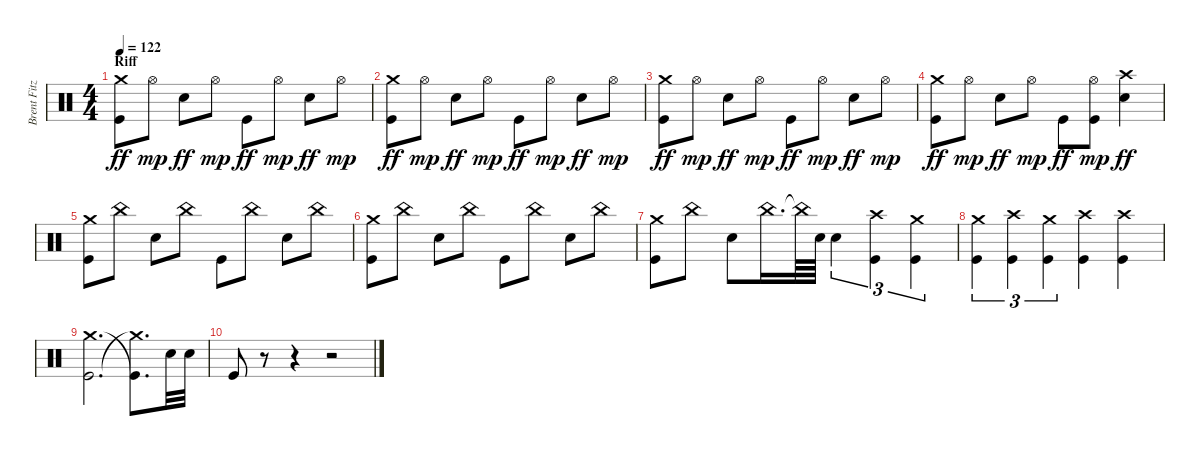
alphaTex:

\track ("Brent Fitz" "Brent Fitz") {instrument percussion}
\staff {score}
\articulation defaults
\ts (4 4)
\section ("" "Riff")
\tempo 122
\clef neutral
\ks c
("Kick (hit)" "Crash medium (hit)").8{dy ff} "Hi-Hat (open)".8{dy mp} "Snare (hit) 2".8{dy ff} "Hi-Hat (open)".8{dy mp} "Kick (hit)".8{dy ff} "Hi-Hat (open)".8{dy mp} "Snare (hit) 2".8{dy ff} "Hi-Hat (open)".8{dy mp} |
("Kick (hit)" "Crash medium (hit)").8{dy ff} "Hi-Hat (open)".8{dy mp} "Snare (hit) 2".8{dy ff} "Hi-Hat (open)".8{dy mp} "Kick (hit)".8{dy ff} "Hi-Hat (open)".8{dy mp} "Snare (hit) 2".8{dy ff} "Hi-Hat (open)".8{dy mp} |
("Kick (hit)" "Crash medium (hit)").8{dy ff} "Hi-Hat (open)".8{dy mp} "Snare (hit) 2".8{dy ff} "Hi-Hat (open)".8{dy mp} "Kick (hit)".8{dy ff} "Hi-Hat (open)".8{dy mp} "Snare (hit) 2".8{dy ff} "Hi-Hat (open)".8{dy mp} |
("Kick (hit)" "Crash medium (hit)").8{dy ff} "Hi-Hat (open)".8{dy mp} "Snare (hit) 2".8{dy ff} "Hi-Hat (open)".8{dy mp} "Kick (hit)".8{dy ff} ("Hi-Hat (open)" "Kick (hit)").8{dy mp} ("Snare (hit) 2" "Crash high (hit)").4{dy ff} |
("Kick (hit)" "Crash medium (hit)").8 "China (hit)".8 "Snare (hit) 2".8 "China (hit)".8 "Kick (hit)".8 "China (hit)".8 "Snare (hit) 2".8 "China (hit)".8 |
("Kick (hit)" "Crash medium (hit)").8 "China (hit)".8 "Snare (hit) 2".8 "China (hit)".8 "Kick (hit)".8 "China (hit)".8 "Snare (hit) 2".8 "China (hit)".8 |
("Kick (hit)" "Crash medium (hit)").8 "China (hit)".8 "Snare (hit) 2".8 "China (hit)".16{d} "China (hit)"{t}.64 "Snare (hit) 2".64 "Snare (hit) 2".4{tu (3 2)} ("Kick (hit)" "Crash high (hit)").4{tu (3 2)} ("Kick (hit)" "Crash medium (hit)").4{tu (3 2)} |
("Kick (hit)" "Crash medium (hit)").4{tu (3 2)} ("Kick (hit)" "Crash high (hit)").4{tu (3 2)} ("Kick (hit)" "Crash medium (hit)").4{tu (3 2)} ("Kick (hit)" "Crash high (hit)").4 ("Kick (hit)" "Crash high (hit)").4 |
("Kick (hit)" "Crash medium (hit)").2{d} ("Crash medium (hit)"{t} "Kick (hit)"{t}).8{d} "Snare (hit) 2".32 "Snare (hit) 2".32 |
"Kick (hit)".8 r.8 r.4 r.2
